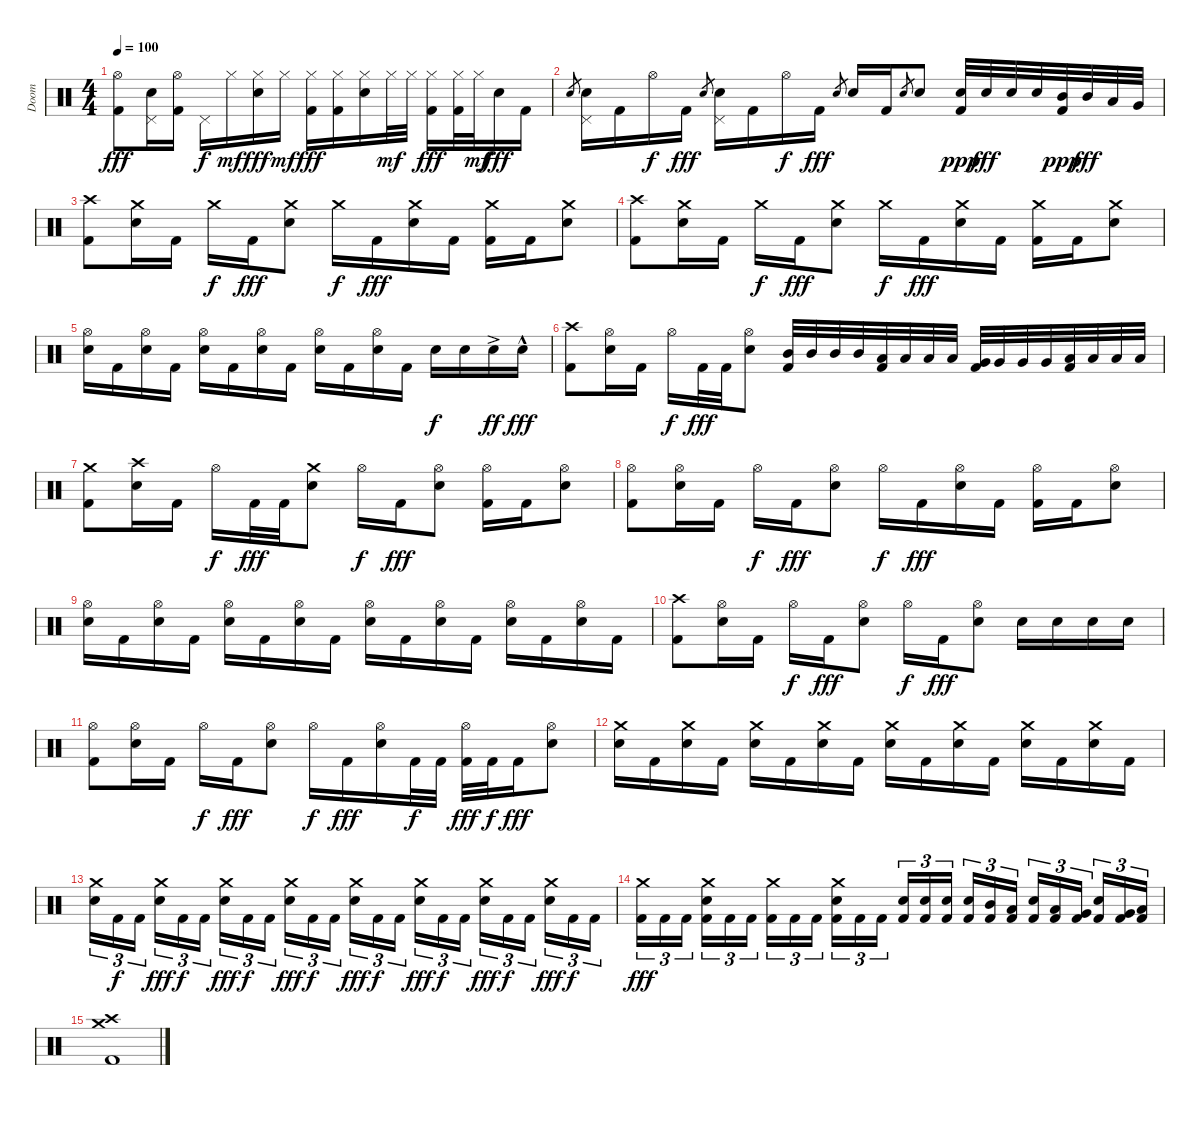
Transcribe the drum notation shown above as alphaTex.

\track ("Doom" "Doom") {instrument percussion}
\staff {score}
\articulation defaults
\ts (4 4)
\tempo 100
\clef neutral
\ks c
("Hi-Hat (open)" "Kick (hit) 2").8{dy fff} ("Electric Snare (hit)" "Pedal Hi-Hat (hit)").16 ("Hi-Hat (open)" "Kick (hit) 2").16 "Pedal Hi-Hat (hit)".16{dy f} "Hi-Hat (closed)".16{dy mf} ("Hi-Hat (closed)" "Electric Snare (hit)").16{dy fff} "Hi-Hat (closed)".16{dy mf} ("Hi-Hat (closed)" "Kick (hit) 2").16{dy fff} ("Hi-Hat (closed)" "Kick (hit) 2").16 ("Hi-Hat (closed)" "Electric Snare (hit)").16 "Hi-Hat (closed)".32{dy mf} "Hi-Hat (closed)".32 ("Hi-Hat (closed)" "Kick (hit) 2").16{dy fff} ("Hi-Hat (closed)" "Kick (hit) 2").32 "Hi-Hat (closed)".32{dy mf} "Electric Snare (hit)".16{dy fff} "Kick (hit) 2".16 |
"Electric Snare (hit)".8{gr} ("Electric Snare (hit)" "Pedal Hi-Hat (hit)").16 "Kick (hit) 2".16 "Hi-Hat (open)".16{dy f} "Kick (hit) 2".16{dy fff} "Electric Snare (hit)".8{gr} ("Electric Snare (hit)" "Pedal Hi-Hat (hit)").16 "Kick (hit) 2".16 "Hi-Hat (open)".16{dy f} "Kick (hit) 2".16{dy fff} "Electric Snare (hit)".8{gr} "Electric Snare (hit)".16 "Kick (hit) 2".16 "Electric Snare (hit)".8{gr} "Electric Snare (hit)".8 ("Electric Snare (hit)" "Kick (hit) 2").32{dy ppp} "Electric Snare (hit)".32{dy fff} "Electric Snare (hit)".32 "Electric Snare (hit)".32 ("Mid Tom (hit)" "Kick (hit) 2").32{dy ppp} "Mid Tom (hit)".32{dy fff} "Low Tom (hit)".32 "Very Low Tom (hit)".32 |
("Crash high (hit)" "Kick (hit) 2").8 ("Crash medium (hit)" "Electric Snare (hit)").16 "Kick (hit) 2".16 "Crash medium (hit)".16{dy f} "Kick (hit) 2".16{dy fff} ("Crash medium (hit)" "Electric Snare (hit)").8 "Crash medium (hit)".16{dy f} "Kick (hit) 2".16{dy fff} ("Crash medium (hit)" "Electric Snare (hit)").16 "Kick (hit) 2".16 ("Crash medium (hit)" "Kick (hit) 2").16 "Kick (hit) 2".16 ("Crash medium (hit)" "Electric Snare (hit)").8 |
("Crash high (hit)" "Kick (hit) 2").8 ("Crash medium (hit)" "Electric Snare (hit)").16 "Kick (hit) 2".16 "Crash medium (hit)".16{dy f} "Kick (hit) 2".16{dy fff} ("Crash medium (hit)" "Electric Snare (hit)").8 "Crash medium (hit)".16{dy f} "Kick (hit) 2".16{dy fff} ("Crash medium (hit)" "Electric Snare (hit)").16 "Kick (hit) 2".16 ("Crash medium (hit)" "Kick (hit) 2").16 "Kick (hit) 2".16 ("Crash medium (hit)" "Electric Snare (hit)").8 |
("Hi-Hat (open)" "Electric Snare (hit)").16 "Kick (hit) 2".16 ("Hi-Hat (open)" "Electric Snare (hit)").16 "Kick (hit) 2".16 ("Hi-Hat (open)" "Electric Snare (hit)").16 "Kick (hit) 2".16 ("Hi-Hat (open)" "Electric Snare (hit)").16 "Kick (hit) 2".16 ("Hi-Hat (open)" "Electric Snare (hit)").16 "Kick (hit) 2".16 ("Hi-Hat (open)" "Electric Snare (hit)").16 "Kick (hit) 2".16 "Electric Snare (hit)".16{dy f} "Electric Snare (hit)".16 "Electric Snare (hit)"{ac}.16{dy ff} "Electric Snare (hit)"{hac}.16{dy fff} |
("Crash high (hit)" "Kick (hit) 2").8 ("Hi-Hat (open)" "Electric Snare (hit)").16 "Kick (hit) 2".16 "Hi-Hat (open)".16{dy f} "Kick (hit) 2".32{dy fff} "Kick (hit) 2".32 ("Hi-Hat (open)" "Electric Snare (hit)").8 ("Mid Tom (hit)" "Kick (hit) 2").32 "Mid Tom (hit)".32 "Mid Tom (hit)".32 "Mid Tom (hit)".32 ("Low Tom (hit)" "Kick (hit) 2").32 "Low Tom (hit)".32 "Low Tom (hit)".32 "Low Tom (hit)".32 ("Very Low Tom (hit)" "Kick (hit) 2").32 "Very Low Tom (hit)".32 "Very Low Tom (hit)".32 "Very Low Tom (hit)".32 ("Low Floor Tom (hit)" "Kick (hit) 2").32 "Low Floor Tom (hit)".32 "Low Floor Tom (hit)".32 "Low Floor Tom (hit)".32 |
("Crash medium (hit)" "Kick (hit) 2").8 ("Crash high (hit)" "Electric Snare (hit)").16 "Kick (hit) 2".16 "Hi-Hat (open)".16{dy f} "Kick (hit) 2".32{dy fff} "Kick (hit) 2".32 ("Crash medium (hit)" "Electric Snare (hit)").8 "Hi-Hat (open)".16{dy f} "Kick (hit) 2".16{dy fff} ("Hi-Hat (open)" "Electric Snare (hit)").8 ("Hi-Hat (open)" "Kick (hit) 2").16 "Kick (hit) 2".16 ("Hi-Hat (open)" "Electric Snare (hit)").8 |
("Hi-Hat (open)" "Kick (hit) 2").8 ("Hi-Hat (open)" "Electric Snare (hit)").16 "Kick (hit) 2".16 "Hi-Hat (open)".16{dy f} "Kick (hit) 2".16{dy fff} ("Hi-Hat (open)" "Electric Snare (hit)").8 "Hi-Hat (open)".16{dy f} "Kick (hit) 2".16{dy fff} ("Hi-Hat (open)" "Electric Snare (hit)").16 "Kick (hit) 2".16 ("Hi-Hat (open)" "Kick (hit) 2").16 "Kick (hit) 2".16 ("Hi-Hat (open)" "Electric Snare (hit)").8 |
("Hi-Hat (open)" "Electric Snare (hit)").16 "Kick (hit) 2".16 ("Hi-Hat (open)" "Electric Snare (hit)").16 "Kick (hit) 2".16 ("Hi-Hat (open)" "Electric Snare (hit)").16 "Kick (hit) 2".16 ("Hi-Hat (open)" "Electric Snare (hit)").16 "Kick (hit) 2".16 ("Hi-Hat (open)" "Electric Snare (hit)").16 "Kick (hit) 2".16 ("Hi-Hat (open)" "Electric Snare (hit)").16 "Kick (hit) 2".16 ("Hi-Hat (open)" "Electric Snare (hit)").16 "Kick (hit) 2".16 ("Hi-Hat (open)" "Electric Snare (hit)").16 "Kick (hit) 2".16 |
("Crash high (hit)" "Kick (hit) 2").8 ("Hi-Hat (open)" "Electric Snare (hit)").16 "Kick (hit) 2".16 "Hi-Hat (open)".16{dy f} "Kick (hit) 2".16{dy fff} ("Hi-Hat (open)" "Electric Snare (hit)").8 "Hi-Hat (open)".16{dy f} "Kick (hit) 2".16{dy fff} ("Hi-Hat (open)" "Electric Snare (hit)").8 "Electric Snare (hit)".16 "Electric Snare (hit)".16 "Electric Snare (hit)".16 "Electric Snare (hit)".16 |
("Hi-Hat (open)" "Kick (hit) 2").8 ("Hi-Hat (open)" "Electric Snare (hit)").16 "Kick (hit) 2".16 "Hi-Hat (open)".16{dy f} "Kick (hit) 2".16{dy fff} ("Hi-Hat (open)" "Electric Snare (hit)").8 "Hi-Hat (open)".16{dy f} "Kick (hit) 2".16{dy fff} ("Hi-Hat (open)" "Electric Snare (hit)").16 "Kick (hit) 2".32{dy f} "Kick (hit) 2".32 ("Hi-Hat (open)" "Kick (hit) 2").32{dy fff} "Kick (hit) 2".32{dy f} "Kick (hit) 2".16{dy fff} ("Hi-Hat (open)" "Electric Snare (hit)").8 |
("Crash medium (hit)" "Electric Snare (hit)").16 "Kick (hit) 2".16 ("Crash medium (hit)" "Electric Snare (hit)").16 "Kick (hit) 2".16 ("Crash medium (hit)" "Electric Snare (hit)").16 "Kick (hit) 2".16 ("Crash medium (hit)" "Electric Snare (hit)").16 "Kick (hit) 2".16 ("Crash medium (hit)" "Electric Snare (hit)").16 "Kick (hit) 2".16 ("Crash medium (hit)" "Electric Snare (hit)").16 "Kick (hit) 2".16 ("Crash medium (hit)" "Electric Snare (hit)").16 "Kick (hit) 2".16 ("Crash medium (hit)" "Electric Snare (hit)").16 "Kick (hit) 2".16 |
("Crash medium (hit)" "Electric Snare (hit)").16{tu (3 2)} "Kick (hit) 2".16{tu (3 2) dy f} "Kick (hit) 2".16{tu (3 2) beam splitsecondary} ("Crash medium (hit)" "Electric Snare (hit)").16{tu (3 2) dy fff} "Kick (hit) 2".16{tu (3 2) dy f} "Kick (hit) 2".16{tu (3 2)} ("Crash medium (hit)" "Electric Snare (hit)").16{tu (3 2) dy fff} "Kick (hit) 2".16{tu (3 2) dy f} "Kick (hit) 2".16{tu (3 2) beam splitsecondary} ("Crash medium (hit)" "Electric Snare (hit)").16{tu (3 2) dy fff} "Kick (hit) 2".16{tu (3 2) dy f} "Kick (hit) 2".16{tu (3 2)} ("Crash medium (hit)" "Electric Snare (hit)").16{tu (3 2) dy fff} "Kick (hit) 2".16{tu (3 2) dy f} "Kick (hit) 2".16{tu (3 2) beam splitsecondary} ("Crash medium (hit)" "Electric Snare (hit)").16{tu (3 2) dy fff} "Kick (hit) 2".16{tu (3 2) dy f} "Kick (hit) 2".16{tu (3 2)} ("Crash medium (hit)" "Electric Snare (hit)").16{tu (3 2) dy fff} "Kick (hit) 2".16{tu (3 2) dy f} "Kick (hit) 2".16{tu (3 2) beam splitsecondary} ("Crash medium (hit)" "Electric Snare (hit)").16{tu (3 2) dy fff} "Kick (hit) 2".16{tu (3 2) dy f} "Kick (hit) 2".16{tu (3 2)} |
("Crash medium (hit)" "Kick (hit) 2").16{tu (3 2) dy fff} "Kick (hit) 2".16{tu (3 2)} "Kick (hit) 2".16{tu (3 2) beam splitsecondary} ("Crash medium (hit)" "Electric Snare (hit)" "Kick (hit) 2").16{tu (3 2)} "Kick (hit) 2".16{tu (3 2)} "Kick (hit) 2".16{tu (3 2)} ("Crash medium (hit)" "Kick (hit) 2").16{tu (3 2)} "Kick (hit) 2".16{tu (3 2)} "Kick (hit) 2".16{tu (3 2) beam splitsecondary} ("Crash medium (hit)" "Electric Snare (hit)" "Kick (hit) 2").16{tu (3 2)} "Kick (hit) 2".16{tu (3 2)} "Kick (hit) 2".16{tu (3 2)} ("Electric Snare (hit)" "Kick (hit) 2").16{tu (3 2)} ("Electric Snare (hit)" "Kick (hit) 2").16{tu (3 2)} ("Electric Snare (hit)" "Kick (hit) 2").16{tu (3 2) beam splitsecondary} ("Electric Snare (hit)" "Kick (hit) 2").16{tu (3 2)} ("Mid Tom (hit)" "Kick (hit) 2").16{tu (3 2)} ("Low Tom (hit)" "Kick (hit) 2").16{tu (3 2)} ("Electric Snare (hit)" "Kick (hit) 2").16{tu (3 2)} ("Low Tom (hit)" "Kick (hit) 2").16{tu (3 2)} ("Very Low Tom (hit)" "Kick (hit) 2").16{tu (3 2) beam splitsecondary} ("Electric Snare (hit)" "Kick (hit) 2").16{tu (3 2)} ("Very Low Tom (hit)" "Kick (hit) 2").16{tu (3 2)} ("Low Floor Tom (hit)" "Kick (hit) 2").16{tu (3 2)} |
("Crash medium (hit)" "Crash high (hit)" "Kick (hit) 2").1
